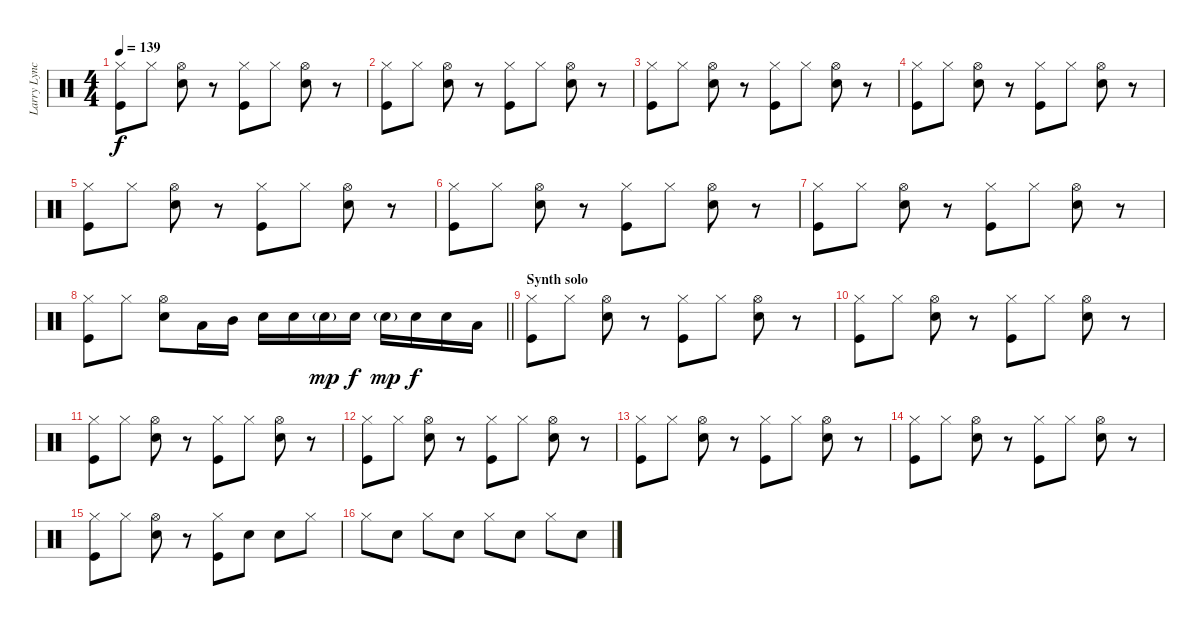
\track ("Larry Lynch" "Larry Lync") {instrument percussion}
\staff {score}
\articulation defaults
\ts (4 4)
\tempo 139
\clef neutral
\ks c
("Hi-Hat (closed)" "Kick (hit)").8{dy f} "Hi-Hat (closed)".8 ("Hi-Hat (open)" "Electric Snare (hit)").8 r.8 ("Hi-Hat (closed)" "Kick (hit)").8 "Hi-Hat (closed)".8 ("Hi-Hat (open)" "Electric Snare (hit)").8 r.8 |
("Hi-Hat (closed)" "Kick (hit)").8 "Hi-Hat (closed)".8 ("Hi-Hat (open)" "Electric Snare (hit)").8 r.8 ("Hi-Hat (closed)" "Kick (hit)").8 "Hi-Hat (closed)".8 ("Hi-Hat (open)" "Electric Snare (hit)").8 r.8 |
("Hi-Hat (closed)" "Kick (hit)").8 "Hi-Hat (closed)".8 ("Hi-Hat (open)" "Electric Snare (hit)").8 r.8 ("Hi-Hat (closed)" "Kick (hit)").8 "Hi-Hat (closed)".8 ("Hi-Hat (open)" "Electric Snare (hit)").8 r.8 |
("Hi-Hat (closed)" "Kick (hit)").8 "Hi-Hat (closed)".8 ("Hi-Hat (open)" "Electric Snare (hit)").8 r.8 ("Hi-Hat (closed)" "Kick (hit)").8 "Hi-Hat (closed)".8 ("Hi-Hat (open)" "Electric Snare (hit)").8 r.8 |
("Hi-Hat (closed)" "Kick (hit)").8 "Hi-Hat (closed)".8 ("Hi-Hat (open)" "Electric Snare (hit)").8 r.8 ("Hi-Hat (closed)" "Kick (hit)").8 "Hi-Hat (closed)".8 ("Hi-Hat (open)" "Electric Snare (hit)").8 r.8 |
("Hi-Hat (closed)" "Kick (hit)").8 "Hi-Hat (closed)".8 ("Hi-Hat (open)" "Electric Snare (hit)").8 r.8 ("Hi-Hat (closed)" "Kick (hit)").8 "Hi-Hat (closed)".8 ("Hi-Hat (open)" "Electric Snare (hit)").8 r.8 |
("Hi-Hat (closed)" "Kick (hit)").8 "Hi-Hat (closed)".8 ("Hi-Hat (open)" "Electric Snare (hit)").8 r.8 ("Hi-Hat (closed)" "Kick (hit)").8 "Hi-Hat (closed)".8 ("Hi-Hat (open)" "Electric Snare (hit)").8 r.8 |
\barLineRight lightlight
("Hi-Hat (closed)" "Kick (hit)").8 "Hi-Hat (closed)".8 ("Hi-Hat (open)" "Electric Snare (hit)").8 "Low Tom (hit)".16 "Mid Tom (hit)".16 "Electric Snare (hit)".16 "Snare (hit) 2".16 "Electric Snare (hit)"{g}.16{dy mp} "Snare (hit) 2".16{dy f} "Electric Snare (hit)"{g}.16{dy mp} "Electric Snare (hit)".16{dy f} "Snare (hit) 2".16 "Low Tom (hit)".16 |
\section ("" "Synth solo")
("Hi-Hat (closed)" "Kick (hit)").8 "Hi-Hat (closed)".8 ("Hi-Hat (open)" "Electric Snare (hit)").8 r.8 ("Hi-Hat (closed)" "Kick (hit)").8 "Hi-Hat (closed)".8 ("Hi-Hat (open)" "Electric Snare (hit)").8 r.8 |
("Hi-Hat (closed)" "Kick (hit)").8 "Hi-Hat (closed)".8 ("Hi-Hat (open)" "Electric Snare (hit)").8 r.8 ("Hi-Hat (closed)" "Kick (hit)").8 "Hi-Hat (closed)".8 ("Hi-Hat (open)" "Electric Snare (hit)").8 r.8 |
("Hi-Hat (closed)" "Kick (hit)").8 "Hi-Hat (closed)".8 ("Hi-Hat (open)" "Electric Snare (hit)").8 r.8 ("Hi-Hat (closed)" "Kick (hit)").8 "Hi-Hat (closed)".8 ("Hi-Hat (open)" "Electric Snare (hit)").8 r.8 |
("Hi-Hat (closed)" "Kick (hit)").8 "Hi-Hat (closed)".8 ("Hi-Hat (open)" "Electric Snare (hit)").8 r.8 ("Hi-Hat (closed)" "Kick (hit)").8 "Hi-Hat (closed)".8 ("Hi-Hat (open)" "Electric Snare (hit)").8 r.8 |
("Hi-Hat (closed)" "Kick (hit)").8 "Hi-Hat (closed)".8 ("Hi-Hat (open)" "Electric Snare (hit)").8 r.8 ("Hi-Hat (closed)" "Kick (hit)").8 "Hi-Hat (closed)".8 ("Hi-Hat (open)" "Electric Snare (hit)").8 r.8 |
("Hi-Hat (closed)" "Kick (hit)").8 "Hi-Hat (closed)".8 ("Hi-Hat (open)" "Electric Snare (hit)").8 r.8 ("Hi-Hat (closed)" "Kick (hit)").8 "Hi-Hat (closed)".8 ("Hi-Hat (open)" "Electric Snare (hit)").8 r.8 |
("Hi-Hat (closed)" "Kick (hit)").8 "Hi-Hat (closed)".8 ("Hi-Hat (open)" "Electric Snare (hit)").8 r.8 ("Hi-Hat (closed)" "Kick (hit)").8 "Electric Snare (hit)".8 "Electric Snare (hit)".8 "Hi-Hat (closed)".8 |
"Hi-Hat (closed)".8 "Electric Snare (hit)".8 "Hi-Hat (closed)".8 "Electric Snare (hit)".8 "Hi-Hat (closed)".8 "Electric Snare (hit)".8 "Hi-Hat (closed)".8 "Electric Snare (hit)".8
